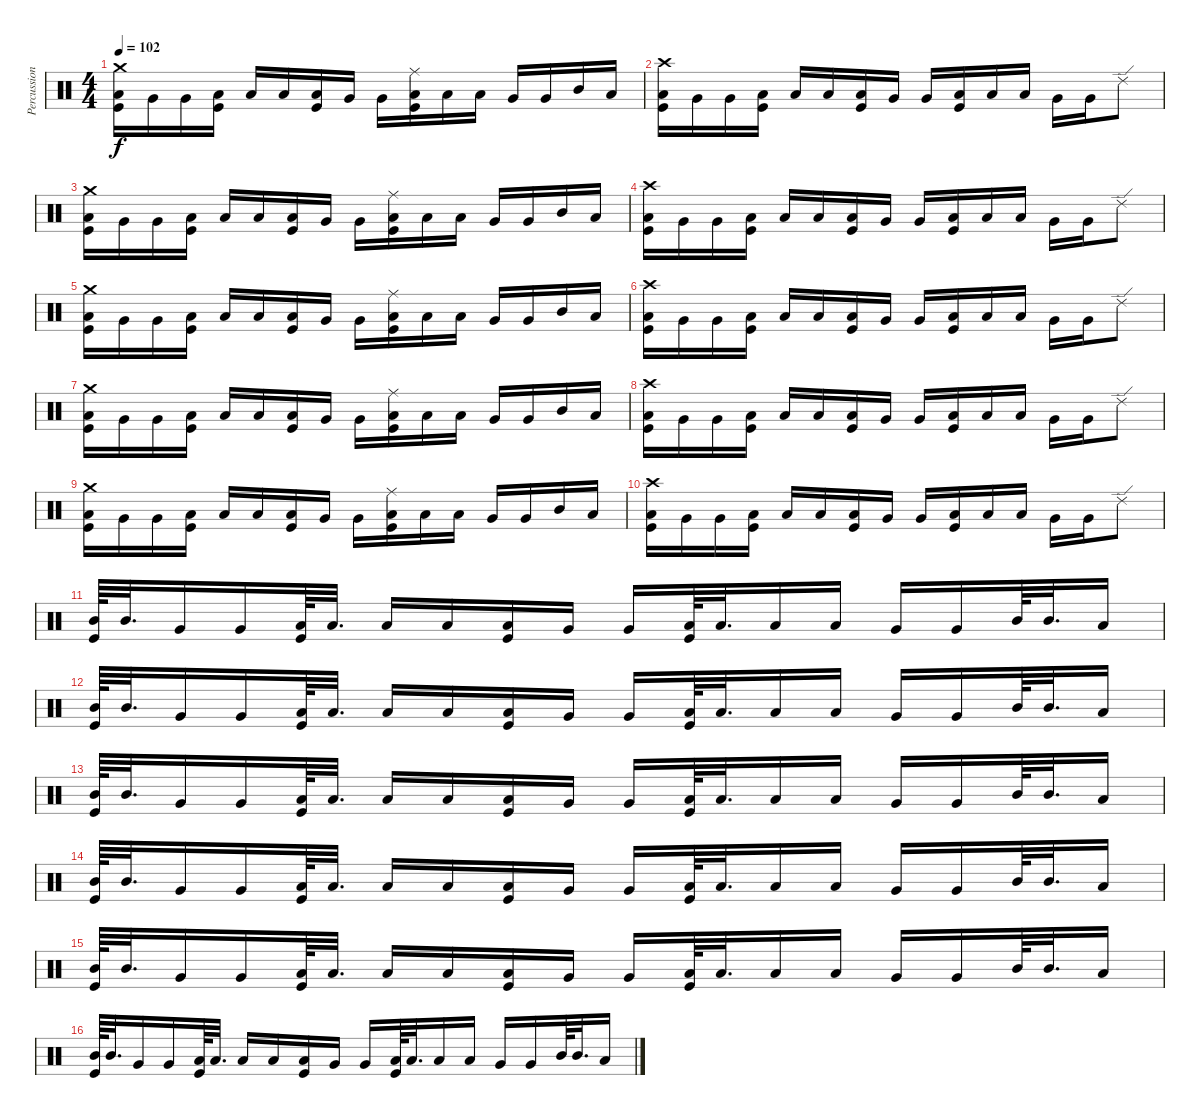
\track ("Percussion" "Percussion") {instrument percussion}
\staff {score}
\articulation defaults
\ts (4 4)
\tempo 102
\clef neutral
\ks c
("Crash medium (hit)" "Low Tom (hit)" "Kick (hit)").16{dy f} "Very Low Tom (hit)".16 "Very Low Tom (hit)".16 ("Low Tom (hit)" "Kick (hit)").16 "Low Floor Tom (hit)".16 "Low Floor Tom (hit)".16 ("Low Tom (hit)" "Kick (hit)").16 "Very Low Tom (hit)".16 "Very Low Tom (hit)".16 ("Ride (middle)" "Low Tom (hit)" "Kick (hit)").16 "Low Floor Tom (hit)".16 "Low Floor Tom (hit)".16 "Very Low Tom (hit)".16 "Very Low Tom (hit)".16 "Mid Tom (hit)".16 "Low Tom (hit)".16 |
("Crash high (hit)" "Low Tom (hit)" "Kick (hit)").16 "Very Low Tom (hit)".16 "Very Low Tom (hit)".16 ("Low Tom (hit)" "Kick (hit)").16 "Low Floor Tom (hit)".16 "Low Floor Tom (hit)".16 ("Low Tom (hit)" "Kick (hit)").16 "Very Low Tom (hit)".16 "Very Low Tom (hit)".16 ("Low Tom (hit)" "Kick (hit)").16 "Low Floor Tom (hit)".16 "Low Floor Tom (hit)".16 "Very Low Tom (hit)".16 "Very Low Tom (hit)".16 "Ride (edge) 2".8 |
("Crash medium (hit)" "Low Tom (hit)" "Kick (hit)").16 "Very Low Tom (hit)".16 "Very Low Tom (hit)".16 ("Low Tom (hit)" "Kick (hit)").16 "Low Floor Tom (hit)".16 "Low Floor Tom (hit)".16 ("Low Tom (hit)" "Kick (hit)").16 "Very Low Tom (hit)".16 "Very Low Tom (hit)".16 ("Ride (middle)" "Low Tom (hit)" "Kick (hit)").16 "Low Floor Tom (hit)".16 "Low Floor Tom (hit)".16 "Very Low Tom (hit)".16 "Very Low Tom (hit)".16 "Mid Tom (hit)".16 "Low Tom (hit)".16 |
("Crash high (hit)" "Low Tom (hit)" "Kick (hit)").16 "Very Low Tom (hit)".16 "Very Low Tom (hit)".16 ("Low Tom (hit)" "Kick (hit)").16 "Low Floor Tom (hit)".16 "Low Floor Tom (hit)".16 ("Low Tom (hit)" "Kick (hit)").16 "Very Low Tom (hit)".16 "Very Low Tom (hit)".16 ("Low Tom (hit)" "Kick (hit)").16 "Low Floor Tom (hit)".16 "Low Floor Tom (hit)".16 "Very Low Tom (hit)".16 "Very Low Tom (hit)".16 "Ride (edge) 2".8 |
("Crash medium (hit)" "Low Tom (hit)" "Kick (hit)").16 "Very Low Tom (hit)".16 "Very Low Tom (hit)".16 ("Low Tom (hit)" "Kick (hit)").16 "Low Floor Tom (hit)".16 "Low Floor Tom (hit)".16 ("Low Tom (hit)" "Kick (hit)").16 "Very Low Tom (hit)".16 "Very Low Tom (hit)".16 ("Ride (middle)" "Low Tom (hit)" "Kick (hit)").16 "Low Floor Tom (hit)".16 "Low Floor Tom (hit)".16 "Very Low Tom (hit)".16 "Very Low Tom (hit)".16 "Mid Tom (hit)".16 "Low Tom (hit)".16 |
("Crash high (hit)" "Low Tom (hit)" "Kick (hit)").16 "Very Low Tom (hit)".16 "Very Low Tom (hit)".16 ("Low Tom (hit)" "Kick (hit)").16 "Low Floor Tom (hit)".16 "Low Floor Tom (hit)".16 ("Low Tom (hit)" "Kick (hit)").16 "Very Low Tom (hit)".16 "Very Low Tom (hit)".16 ("Low Tom (hit)" "Kick (hit)").16 "Low Floor Tom (hit)".16 "Low Floor Tom (hit)".16 "Very Low Tom (hit)".16 "Very Low Tom (hit)".16 "Ride (edge) 2".8 |
("Crash medium (hit)" "Low Tom (hit)" "Kick (hit)").16 "Very Low Tom (hit)".16 "Very Low Tom (hit)".16 ("Low Tom (hit)" "Kick (hit)").16 "Low Floor Tom (hit)".16 "Low Floor Tom (hit)".16 ("Low Tom (hit)" "Kick (hit)").16 "Very Low Tom (hit)".16 "Very Low Tom (hit)".16 ("Ride (middle)" "Low Tom (hit)" "Kick (hit)").16 "Low Floor Tom (hit)".16 "Low Floor Tom (hit)".16 "Very Low Tom (hit)".16 "Very Low Tom (hit)".16 "Mid Tom (hit)".16 "Low Tom (hit)".16 |
("Crash high (hit)" "Low Tom (hit)" "Kick (hit)").16 "Very Low Tom (hit)".16 "Very Low Tom (hit)".16 ("Low Tom (hit)" "Kick (hit)").16 "Low Floor Tom (hit)".16 "Low Floor Tom (hit)".16 ("Low Tom (hit)" "Kick (hit)").16 "Very Low Tom (hit)".16 "Very Low Tom (hit)".16 ("Low Tom (hit)" "Kick (hit)").16 "Low Floor Tom (hit)".16 "Low Floor Tom (hit)".16 "Very Low Tom (hit)".16 "Very Low Tom (hit)".16 "Ride (edge) 2".8 |
("Crash medium (hit)" "Low Tom (hit)" "Kick (hit)").16 "Very Low Tom (hit)".16 "Very Low Tom (hit)".16 ("Low Tom (hit)" "Kick (hit)").16 "Low Floor Tom (hit)".16 "Low Floor Tom (hit)".16 ("Low Tom (hit)" "Kick (hit)").16 "Very Low Tom (hit)".16 "Very Low Tom (hit)".16 ("Ride (middle)" "Low Tom (hit)" "Kick (hit)").16 "Low Floor Tom (hit)".16 "Low Floor Tom (hit)".16 "Very Low Tom (hit)".16 "Very Low Tom (hit)".16 "Mid Tom (hit)".16 "Low Tom (hit)".16 |
("Crash high (hit)" "Low Tom (hit)" "Kick (hit)").16 "Very Low Tom (hit)".16 "Very Low Tom (hit)".16 ("Low Tom (hit)" "Kick (hit)").16 "Low Floor Tom (hit)".16 "Low Floor Tom (hit)".16 ("Low Tom (hit)" "Kick (hit)").16 "Very Low Tom (hit)".16 "Very Low Tom (hit)".16 ("Low Tom (hit)" "Kick (hit)").16 "Low Floor Tom (hit)".16 "Low Floor Tom (hit)".16 "Very Low Tom (hit)".16 "Very Low Tom (hit)".16 "Ride (edge) 2".8 |
("Mid Tom (hit)" "Kick (hit)").64 "Mid Tom (hit)".32{d} "Very Low Tom (hit)".16 "Very Low Tom (hit)".16 ("Low Tom (hit)" "Kick (hit)").64 "Low Tom (hit)".32{d} "Low Floor Tom (hit)".16 "Low Floor Tom (hit)".16 ("Low Tom (hit)" "Kick (hit)").16 "Very Low Tom (hit)".16 "Very Low Tom (hit)".16 ("Low Tom (hit)" "Kick (hit)").64 "Low Tom (hit)".32{d} "Low Floor Tom (hit)".16 "Low Floor Tom (hit)".16 "Very Low Tom (hit)".16 "Very Low Tom (hit)".16 "Mid Tom (hit)".64 "Mid Tom (hit)".32{d} "Low Tom (hit)".16 |
("Mid Tom (hit)" "Kick (hit)").64 "Mid Tom (hit)".32{d} "Very Low Tom (hit)".16 "Very Low Tom (hit)".16 ("Low Tom (hit)" "Kick (hit)").64 "Low Tom (hit)".32{d} "Low Floor Tom (hit)".16 "Low Floor Tom (hit)".16 ("Low Tom (hit)" "Kick (hit)").16 "Very Low Tom (hit)".16 "Very Low Tom (hit)".16 ("Low Tom (hit)" "Kick (hit)").64 "Low Tom (hit)".32{d} "Low Floor Tom (hit)".16 "Low Floor Tom (hit)".16 "Very Low Tom (hit)".16 "Very Low Tom (hit)".16 "Mid Tom (hit)".64 "Mid Tom (hit)".32{d} "Low Tom (hit)".16 |
("Mid Tom (hit)" "Kick (hit)").64 "Mid Tom (hit)".32{d} "Very Low Tom (hit)".16 "Very Low Tom (hit)".16 ("Low Tom (hit)" "Kick (hit)").64 "Low Tom (hit)".32{d} "Low Floor Tom (hit)".16 "Low Floor Tom (hit)".16 ("Low Tom (hit)" "Kick (hit)").16 "Very Low Tom (hit)".16 "Very Low Tom (hit)".16 ("Low Tom (hit)" "Kick (hit)").64 "Low Tom (hit)".32{d} "Low Floor Tom (hit)".16 "Low Floor Tom (hit)".16 "Very Low Tom (hit)".16 "Very Low Tom (hit)".16 "Mid Tom (hit)".64 "Mid Tom (hit)".32{d} "Low Tom (hit)".16 |
("Mid Tom (hit)" "Kick (hit)").64 "Mid Tom (hit)".32{d} "Very Low Tom (hit)".16 "Very Low Tom (hit)".16 ("Low Tom (hit)" "Kick (hit)").64 "Low Tom (hit)".32{d} "Low Floor Tom (hit)".16 "Low Floor Tom (hit)".16 ("Low Tom (hit)" "Kick (hit)").16 "Very Low Tom (hit)".16 "Very Low Tom (hit)".16 ("Low Tom (hit)" "Kick (hit)").64 "Low Tom (hit)".32{d} "Low Floor Tom (hit)".16 "Low Floor Tom (hit)".16 "Very Low Tom (hit)".16 "Very Low Tom (hit)".16 "Mid Tom (hit)".64 "Mid Tom (hit)".32{d} "Low Tom (hit)".16 |
("Mid Tom (hit)" "Kick (hit)").64 "Mid Tom (hit)".32{d} "Very Low Tom (hit)".16 "Very Low Tom (hit)".16 ("Low Tom (hit)" "Kick (hit)").64 "Low Tom (hit)".32{d} "Low Floor Tom (hit)".16 "Low Floor Tom (hit)".16 ("Low Tom (hit)" "Kick (hit)").16 "Very Low Tom (hit)".16 "Very Low Tom (hit)".16 ("Low Tom (hit)" "Kick (hit)").64 "Low Tom (hit)".32{d} "Low Floor Tom (hit)".16 "Low Floor Tom (hit)".16 "Very Low Tom (hit)".16 "Very Low Tom (hit)".16 "Mid Tom (hit)".64 "Mid Tom (hit)".32{d} "Low Tom (hit)".16 |
("Mid Tom (hit)" "Kick (hit)").64 "Mid Tom (hit)".32{d} "Very Low Tom (hit)".16 "Very Low Tom (hit)".16 ("Low Tom (hit)" "Kick (hit)").64 "Low Tom (hit)".32{d} "Low Floor Tom (hit)".16 "Low Floor Tom (hit)".16 ("Low Tom (hit)" "Kick (hit)").16 "Very Low Tom (hit)".16 "Very Low Tom (hit)".16 ("Low Tom (hit)" "Kick (hit)").64 "Low Tom (hit)".32{d} "Low Floor Tom (hit)".16 "Low Floor Tom (hit)".16 "Very Low Tom (hit)".16 "Very Low Tom (hit)".16 "Mid Tom (hit)".64 "Mid Tom (hit)".32{d} "Low Tom (hit)".16
